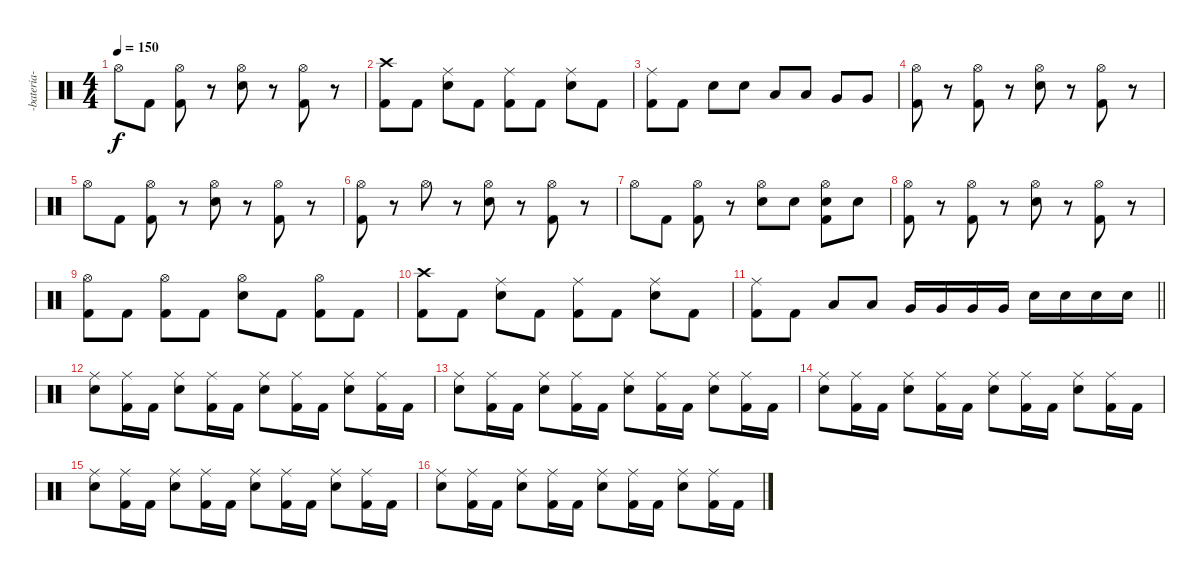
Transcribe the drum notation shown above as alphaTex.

\track ("-bateria-" "-bateria-") {instrument percussion}
\staff {score}
\articulation defaults
\ts (4 4)
\tempo 150
\clef neutral
\ks c "Hi-Hat (open)".8{dy f} "Kick (hit) 2".8
("Hi-Hat (open)" "Kick (hit) 2").8 r.8 ("Hi-Hat (open)" "Electric Snare (hit)").8 r.8 ("Hi-Hat (open)" "Kick (hit) 2").8 r.8 |
("Crash high (hit)" "Kick (hit) 2").8 "Kick (hit) 2".8 ("Ride (middle)" "Electric Snare (hit)").8 "Kick (hit) 2".8 ("Ride (middle)" "Kick (hit) 2").8 "Kick (hit) 2".8 ("Ride (middle)" "Electric Snare (hit)").8 "Kick (hit) 2".8 |
("Ride (middle)" "Kick (hit) 2").8 "Kick (hit) 2".8 "Electric Snare (hit)".8 "Electric Snare (hit)".8 "Low Tom (hit)".8 "Low Tom (hit)".8 "Very Low Tom (hit)".8 "Very Low Tom (hit)".8 |
("Hi-Hat (open)" "Kick (hit) 2").8 r.8 ("Hi-Hat (open)" "Kick (hit) 2").8 r.8 ("Hi-Hat (open)" "Electric Snare (hit)").8 r.8 ("Hi-Hat (open)" "Kick (hit) 2").8 r.8 |
"Hi-Hat (open)".8 "Kick (hit) 2".8 ("Hi-Hat (open)" "Kick (hit) 2").8 r.8 ("Hi-Hat (open)" "Electric Snare (hit)").8 r.8 ("Hi-Hat (open)" "Kick (hit) 2").8 r.8 |
("Hi-Hat (open)" "Kick (hit) 2").8 r.8 "Hi-Hat (open)".8 r.8 ("Hi-Hat (open)" "Electric Snare (hit)").8 r.8 ("Hi-Hat (open)" "Kick (hit) 2").8 r.8 |
"Hi-Hat (open)".8 "Kick (hit) 2".8 ("Hi-Hat (open)" "Kick (hit) 2").8 r.8 ("Hi-Hat (open)" "Electric Snare (hit)").8 "Electric Snare (hit)".8 ("Hi-Hat (open)" "Electric Snare (hit)" "Kick (hit) 2").8 "Electric Snare (hit)".8 |
("Hi-Hat (open)" "Kick (hit) 2").8 r.8 ("Hi-Hat (open)" "Kick (hit) 2").8 r.8 ("Hi-Hat (open)" "Electric Snare (hit)").8 r.8 ("Hi-Hat (open)" "Kick (hit) 2").8 r.8 |
("Hi-Hat (open)" "Kick (hit) 2").8 "Kick (hit) 2".8 ("Hi-Hat (open)" "Kick (hit) 2").8 "Kick (hit) 2".8 ("Hi-Hat (open)" "Electric Snare (hit)").8 "Kick (hit) 2".8 ("Hi-Hat (open)" "Kick (hit) 2").8 "Kick (hit) 2".8 |
("Crash high (hit)" "Kick (hit) 2").8 "Kick (hit) 2".8 ("Ride (middle)" "Electric Snare (hit)").8 "Kick (hit) 2".8 ("Ride (middle)" "Kick (hit) 2").8 "Kick (hit) 2".8 ("Ride (middle)" "Electric Snare (hit)").8 "Kick (hit) 2".8 |
\barLineRight lightlight
("Ride (middle)" "Kick (hit) 2").8 "Kick (hit) 2".8 "Low Tom (hit)".8 "Low Tom (hit)".8 "Very Low Tom (hit)".16 "Very Low Tom (hit)".16 "Very Low Tom (hit)".16 "Very Low Tom (hit)".16 "Electric Snare (hit)".16 "Electric Snare (hit)".16 "Electric Snare (hit)".16 "Electric Snare (hit)".16 |
\section ("" "")
("Ride (middle)" "Electric Snare (hit)").8 ("Ride (middle)" "Kick (hit) 2").16 "Kick (hit) 2".16 ("Ride (middle)" "Electric Snare (hit)").8 ("Ride (middle)" "Kick (hit) 2").16 "Kick (hit) 2".16 ("Ride (middle)" "Electric Snare (hit)").8 ("Ride (middle)" "Kick (hit) 2").16 "Kick (hit) 2".16 ("Ride (middle)" "Electric Snare (hit)").8 ("Ride (middle)" "Kick (hit) 2").16 "Kick (hit) 2".16 |
("Ride (middle)" "Electric Snare (hit)").8 ("Ride (middle)" "Kick (hit) 2").16 "Kick (hit) 2".16 ("Ride (middle)" "Electric Snare (hit)").8 ("Ride (middle)" "Kick (hit) 2").16 "Kick (hit) 2".16 ("Ride (middle)" "Electric Snare (hit)").8 ("Ride (middle)" "Kick (hit) 2").16 "Kick (hit) 2".16 ("Ride (middle)" "Electric Snare (hit)").8 ("Ride (middle)" "Kick (hit) 2").16 "Kick (hit) 2".16 |
("Ride (middle)" "Electric Snare (hit)").8 ("Ride (middle)" "Kick (hit) 2").16 "Kick (hit) 2".16 ("Ride (middle)" "Electric Snare (hit)").8 ("Ride (middle)" "Kick (hit) 2").16 "Kick (hit) 2".16 ("Ride (middle)" "Electric Snare (hit)").8 ("Ride (middle)" "Kick (hit) 2").16 "Kick (hit) 2".16 ("Ride (middle)" "Electric Snare (hit)").8 ("Ride (middle)" "Kick (hit) 2").16 "Kick (hit) 2".16 |
("Ride (middle)" "Electric Snare (hit)").8 ("Ride (middle)" "Kick (hit) 2").16 "Kick (hit) 2".16 ("Ride (middle)" "Electric Snare (hit)").8 ("Ride (middle)" "Kick (hit) 2").16 "Kick (hit) 2".16 ("Ride (middle)" "Electric Snare (hit)").8 ("Ride (middle)" "Kick (hit) 2").16 "Kick (hit) 2".16 ("Ride (middle)" "Electric Snare (hit)").8 ("Ride (middle)" "Kick (hit) 2").16 "Kick (hit) 2".16 |
("Ride (middle)" "Electric Snare (hit)").8 ("Ride (middle)" "Kick (hit) 2").16 "Kick (hit) 2".16 ("Ride (middle)" "Electric Snare (hit)").8 ("Ride (middle)" "Kick (hit) 2").16 "Kick (hit) 2".16 ("Ride (middle)" "Electric Snare (hit)").8 ("Ride (middle)" "Kick (hit) 2").16 "Kick (hit) 2".16 ("Ride (middle)" "Electric Snare (hit)").8 ("Ride (middle)" "Kick (hit) 2").16 "Kick (hit) 2".16
